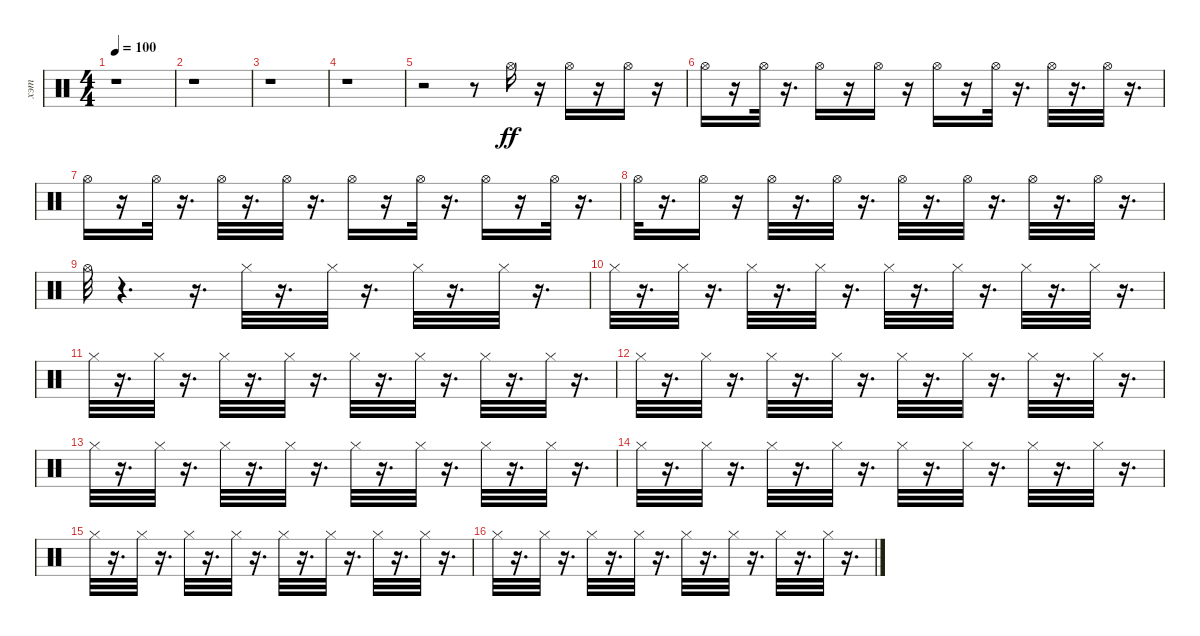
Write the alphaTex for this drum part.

\track ("хэт" "хэт") {instrument percussion}
\staff {score}
\articulation defaults
\ts (4 4)
\tempo 100
\clef neutral
\ks c
r.1{dy ff} |
r.1 |
r.1 |
r.1 |
r.2 r.8 "Hi-Hat (open)".16 r.16 "Hi-Hat (open)".16 r.16 "Hi-Hat (open)".16 r.16 |
"Hi-Hat (open)".16 r.16 "Hi-Hat (open)".32 r.16{d} "Hi-Hat (open)".16 r.16 "Hi-Hat (open)".16 r.16 "Hi-Hat (open)".16 r.16 "Hi-Hat (open)".32 r.16{d} "Hi-Hat (open)".32 r.16{d} "Hi-Hat (open)".32 r.16{d} |
"Hi-Hat (open)".16 r.16 "Hi-Hat (open)".32 r.16{d} "Hi-Hat (open)".32 r.16{d} "Hi-Hat (open)".32 r.16{d} "Hi-Hat (open)".16 r.16 "Hi-Hat (open)".32 r.16{d} "Hi-Hat (open)".16 r.16 "Hi-Hat (open)".32 r.16{d} |
"Hi-Hat (open)".32 r.16{d} "Hi-Hat (open)".16 r.16 "Hi-Hat (open)".32 r.16{d} "Hi-Hat (open)".32 r.16{d} "Hi-Hat (open)".32 r.16{d} "Hi-Hat (open)".32 r.16{d} "Hi-Hat (open)".32 r.16{d} "Hi-Hat (open)".32 r.16{d} |
"Hi-Hat (open)".32 r.4{d} r.16{d} "Hi-Hat (closed)".32 r.16{d} "Hi-Hat (closed)".32 r.16{d} "Hi-Hat (closed)".32 r.16{d} "Hi-Hat (closed)".32 r.16{d} |
"Hi-Hat (closed)".32 r.16{d} "Hi-Hat (closed)".32 r.16{d} "Hi-Hat (closed)".32 r.16{d} "Hi-Hat (closed)".32 r.16{d} "Hi-Hat (closed)".32 r.16{d} "Hi-Hat (closed)".32 r.16{d} "Hi-Hat (closed)".32 r.16{d} "Hi-Hat (closed)".32 r.16{d} |
"Hi-Hat (closed)".32 r.16{d} "Hi-Hat (closed)".32 r.16{d} "Hi-Hat (closed)".32 r.16{d} "Hi-Hat (closed)".32 r.16{d} "Hi-Hat (closed)".32 r.16{d} "Hi-Hat (closed)".32 r.16{d} "Hi-Hat (closed)".32 r.16{d} "Hi-Hat (closed)".32 r.16{d} |
"Hi-Hat (closed)".32 r.16{d} "Hi-Hat (closed)".32 r.16{d} "Hi-Hat (closed)".32 r.16{d} "Hi-Hat (closed)".32 r.16{d} "Hi-Hat (closed)".32 r.16{d} "Hi-Hat (closed)".32 r.16{d} "Hi-Hat (closed)".32 r.16{d} "Hi-Hat (closed)".32 r.16{d} |
"Hi-Hat (closed)".32 r.16{d} "Hi-Hat (closed)".32 r.16{d} "Hi-Hat (closed)".32 r.16{d} "Hi-Hat (closed)".32 r.16{d} "Hi-Hat (closed)".32 r.16{d} "Hi-Hat (closed)".32 r.16{d} "Hi-Hat (closed)".32 r.16{d} "Hi-Hat (closed)".32 r.16{d} |
"Hi-Hat (closed)".32 r.16{d} "Hi-Hat (closed)".32 r.16{d} "Hi-Hat (closed)".32 r.16{d} "Hi-Hat (closed)".32 r.16{d} "Hi-Hat (closed)".32 r.16{d} "Hi-Hat (closed)".32 r.16{d} "Hi-Hat (closed)".32 r.16{d} "Hi-Hat (closed)".32 r.16{d} |
"Hi-Hat (closed)".32 r.16{d} "Hi-Hat (closed)".32 r.16{d} "Hi-Hat (closed)".32 r.16{d} "Hi-Hat (closed)".32 r.16{d} "Hi-Hat (closed)".32 r.16{d} "Hi-Hat (closed)".32 r.16{d} "Hi-Hat (closed)".32 r.16{d} "Hi-Hat (closed)".32 r.16{d} |
"Hi-Hat (closed)".32 r.16{d} "Hi-Hat (closed)".32 r.16{d} "Hi-Hat (closed)".32 r.16{d} "Hi-Hat (closed)".32 r.16{d} "Hi-Hat (closed)".32 r.16{d} "Hi-Hat (closed)".32 r.16{d} "Hi-Hat (closed)".32 r.16{d} "Hi-Hat (closed)".32 r.16{d}
